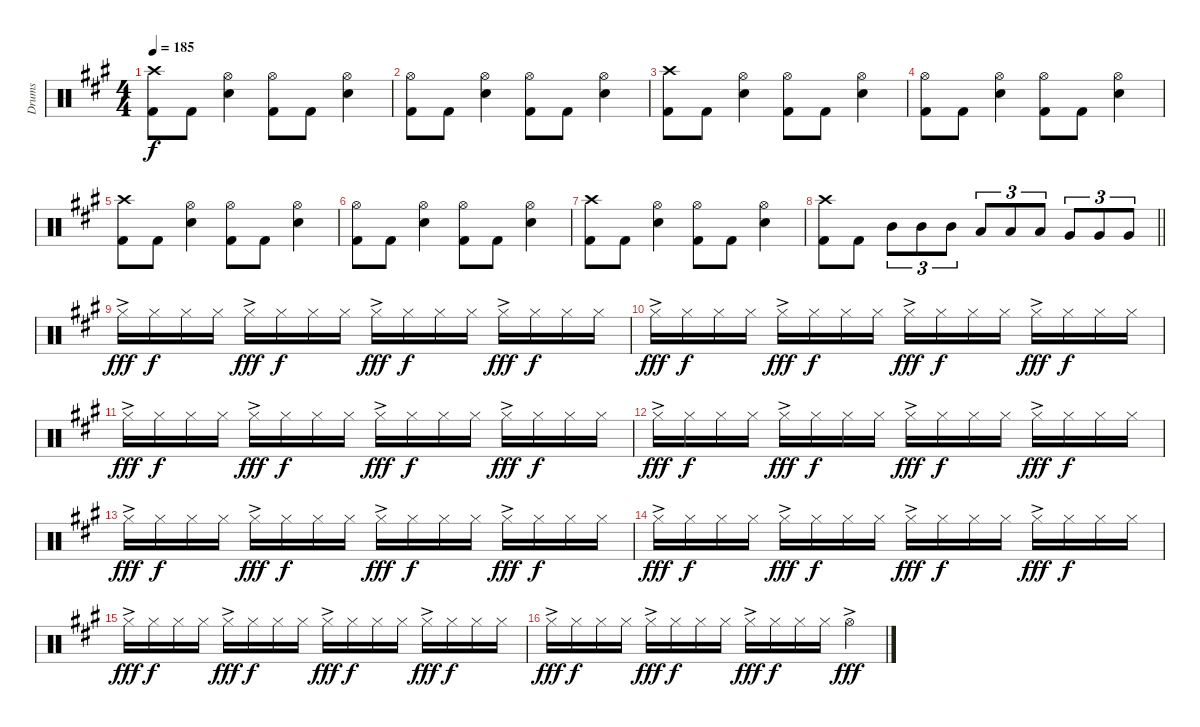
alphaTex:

\track ("Drums" "Drums") {instrument percussion}
\staff {score}
\articulation defaults
\ts (4 4)
\tempo 185
\clef neutral
\ks f#minor
("Crash high (hit)" "Kick (hit) 2").8{dy f} "Kick (hit) 2".8 ("Hi-Hat (open)" "Electric Snare (hit)").4 ("Hi-Hat (open)" "Kick (hit) 2").8 "Kick (hit) 2".8 ("Hi-Hat (open)" "Electric Snare (hit)").4 |
("Hi-Hat (open)" "Kick (hit) 2").8 "Kick (hit) 2".8 ("Hi-Hat (open)" "Electric Snare (hit)").4 ("Hi-Hat (open)" "Kick (hit) 2").8 "Kick (hit) 2".8 ("Hi-Hat (open)" "Electric Snare (hit)").4 |
("Crash high (hit)" "Kick (hit) 2").8 "Kick (hit) 2".8 ("Hi-Hat (open)" "Electric Snare (hit)").4 ("Hi-Hat (open)" "Kick (hit) 2").8 "Kick (hit) 2".8 ("Hi-Hat (open)" "Electric Snare (hit)").4 |
("Hi-Hat (open)" "Kick (hit) 2").8 "Kick (hit) 2".8 ("Hi-Hat (open)" "Electric Snare (hit)").4 ("Hi-Hat (open)" "Kick (hit) 2").8 "Kick (hit) 2".8 ("Hi-Hat (open)" "Electric Snare (hit)").4 |
("Crash high (hit)" "Kick (hit) 2").8 "Kick (hit) 2".8 ("Hi-Hat (open)" "Electric Snare (hit)").4 ("Hi-Hat (open)" "Kick (hit) 2").8 "Kick (hit) 2".8 ("Hi-Hat (open)" "Electric Snare (hit)").4 |
("Hi-Hat (open)" "Kick (hit) 2").8 "Kick (hit) 2".8 ("Hi-Hat (open)" "Electric Snare (hit)").4 ("Hi-Hat (open)" "Kick (hit) 2").8 "Kick (hit) 2".8 ("Hi-Hat (open)" "Electric Snare (hit)").4 |
("Crash high (hit)" "Kick (hit) 2").8 "Kick (hit) 2".8 ("Hi-Hat (open)" "Electric Snare (hit)").4 ("Hi-Hat (open)" "Kick (hit) 2").8 "Kick (hit) 2".8 ("Hi-Hat (open)" "Electric Snare (hit)").4 |
\barLineRight lightlight
("Crash high (hit)" "Kick (hit) 2").8 "Kick (hit) 2".8 "Mid Tom (hit)".8{tu (3 2)} "Mid Tom (hit)".8{tu (3 2)} "Mid Tom (hit)".8{tu (3 2)} "Low Tom (hit)".8{tu (3 2)} "Low Tom (hit)".8{tu (3 2)} "Low Tom (hit)".8{tu (3 2)} "Very Low Tom (hit)".8{tu (3 2)} "Very Low Tom (hit)".8{tu (3 2)} "Very Low Tom (hit)".8{tu (3 2)} |
"Hi-Hat (closed)"{ac}.16{dy fff} "Hi-Hat (closed)".16{dy f} "Hi-Hat (closed)".16 "Hi-Hat (closed)".16 "Hi-Hat (closed)"{ac}.16{dy fff} "Hi-Hat (closed)".16{dy f} "Hi-Hat (closed)".16 "Hi-Hat (closed)".16 "Hi-Hat (closed)"{ac}.16{dy fff} "Hi-Hat (closed)".16{dy f} "Hi-Hat (closed)".16 "Hi-Hat (closed)".16 "Hi-Hat (closed)"{ac}.16{dy fff} "Hi-Hat (closed)".16{dy f} "Hi-Hat (closed)".16 "Hi-Hat (closed)".16 |
"Hi-Hat (closed)"{ac}.16{dy fff} "Hi-Hat (closed)".16{dy f} "Hi-Hat (closed)".16 "Hi-Hat (closed)".16 "Hi-Hat (closed)"{ac}.16{dy fff} "Hi-Hat (closed)".16{dy f} "Hi-Hat (closed)".16 "Hi-Hat (closed)".16 "Hi-Hat (closed)"{ac}.16{dy fff} "Hi-Hat (closed)".16{dy f} "Hi-Hat (closed)".16 "Hi-Hat (closed)".16 "Hi-Hat (closed)"{ac}.16{dy fff} "Hi-Hat (closed)".16{dy f} "Hi-Hat (closed)".16 "Hi-Hat (closed)".16 |
"Hi-Hat (closed)"{ac}.16{dy fff} "Hi-Hat (closed)".16{dy f} "Hi-Hat (closed)".16 "Hi-Hat (closed)".16 "Hi-Hat (closed)"{ac}.16{dy fff} "Hi-Hat (closed)".16{dy f} "Hi-Hat (closed)".16 "Hi-Hat (closed)".16 "Hi-Hat (closed)"{ac}.16{dy fff} "Hi-Hat (closed)".16{dy f} "Hi-Hat (closed)".16 "Hi-Hat (closed)".16 "Hi-Hat (closed)"{ac}.16{dy fff} "Hi-Hat (closed)".16{dy f} "Hi-Hat (closed)".16 "Hi-Hat (closed)".16 |
"Hi-Hat (closed)"{ac}.16{dy fff} "Hi-Hat (closed)".16{dy f} "Hi-Hat (closed)".16 "Hi-Hat (closed)".16 "Hi-Hat (closed)"{ac}.16{dy fff} "Hi-Hat (closed)".16{dy f} "Hi-Hat (closed)".16 "Hi-Hat (closed)".16 "Hi-Hat (closed)"{ac}.16{dy fff} "Hi-Hat (closed)".16{dy f} "Hi-Hat (closed)".16 "Hi-Hat (closed)".16 "Hi-Hat (closed)"{ac}.16{dy fff} "Hi-Hat (closed)".16{dy f} "Hi-Hat (closed)".16 "Hi-Hat (closed)".16 |
"Hi-Hat (closed)"{ac}.16{dy fff} "Hi-Hat (closed)".16{dy f} "Hi-Hat (closed)".16 "Hi-Hat (closed)".16 "Hi-Hat (closed)"{ac}.16{dy fff} "Hi-Hat (closed)".16{dy f} "Hi-Hat (closed)".16 "Hi-Hat (closed)".16 "Hi-Hat (closed)"{ac}.16{dy fff} "Hi-Hat (closed)".16{dy f} "Hi-Hat (closed)".16 "Hi-Hat (closed)".16 "Hi-Hat (closed)"{ac}.16{dy fff} "Hi-Hat (closed)".16{dy f} "Hi-Hat (closed)".16 "Hi-Hat (closed)".16 |
"Hi-Hat (closed)"{ac}.16{dy fff} "Hi-Hat (closed)".16{dy f} "Hi-Hat (closed)".16 "Hi-Hat (closed)".16 "Hi-Hat (closed)"{ac}.16{dy fff} "Hi-Hat (closed)".16{dy f} "Hi-Hat (closed)".16 "Hi-Hat (closed)".16 "Hi-Hat (closed)"{ac}.16{dy fff} "Hi-Hat (closed)".16{dy f} "Hi-Hat (closed)".16 "Hi-Hat (closed)".16 "Hi-Hat (closed)"{ac}.16{dy fff} "Hi-Hat (closed)".16{dy f} "Hi-Hat (closed)".16 "Hi-Hat (closed)".16 |
"Hi-Hat (closed)"{ac}.16{dy fff} "Hi-Hat (closed)".16{dy f} "Hi-Hat (closed)".16 "Hi-Hat (closed)".16 "Hi-Hat (closed)"{ac}.16{dy fff} "Hi-Hat (closed)".16{dy f} "Hi-Hat (closed)".16 "Hi-Hat (closed)".16 "Hi-Hat (closed)"{ac}.16{dy fff} "Hi-Hat (closed)".16{dy f} "Hi-Hat (closed)".16 "Hi-Hat (closed)".16 "Hi-Hat (closed)"{ac}.16{dy fff} "Hi-Hat (closed)".16{dy f} "Hi-Hat (closed)".16 "Hi-Hat (closed)".16 |
"Hi-Hat (closed)"{ac}.16{dy fff} "Hi-Hat (closed)".16{dy f} "Hi-Hat (closed)".16 "Hi-Hat (closed)".16 "Hi-Hat (closed)"{ac}.16{dy fff} "Hi-Hat (closed)".16{dy f} "Hi-Hat (closed)".16 "Hi-Hat (closed)".16 "Hi-Hat (closed)"{ac}.16{dy fff} "Hi-Hat (closed)".16{dy f} "Hi-Hat (closed)".16 "Hi-Hat (closed)".16 "Hi-Hat (open)"{ac}.4{dy fff}
